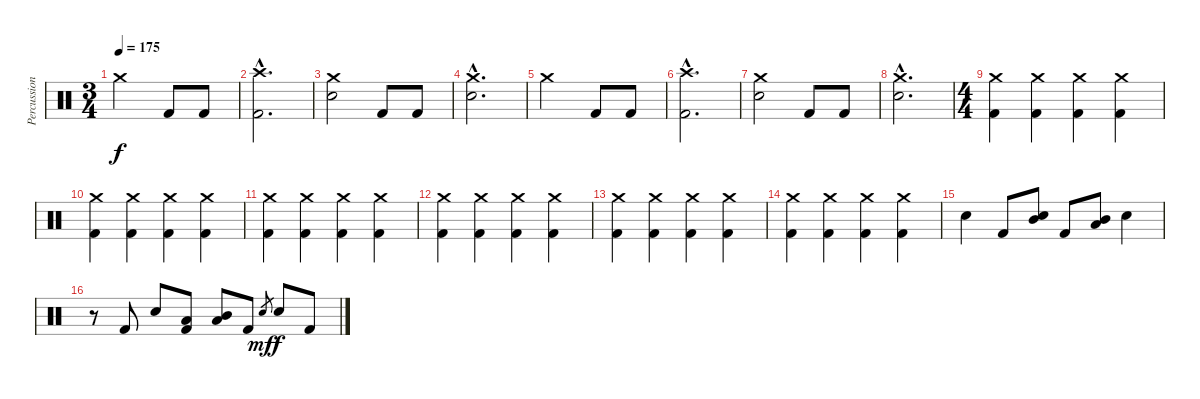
\track ("Percussion" "Percussion") {instrument percussion}
\staff {score}
\articulation defaults
\ts (3 4)
\tempo 175
\clef neutral
\ks c "Crash medium (hit)".2{dy f} "Kick (hit) 2".8 "Kick (hit) 2".8
|
("Kick (hit) 2"{hac} "Crash high (hit)"{hac}).2{d} |
("Crash medium (hit)" "Electric Snare (hit)").2 "Kick (hit) 2".8 "Kick (hit) 2".8 |
("Crash medium (hit)"{hac} "Electric Snare (hit)"{hac}).2{d} |
"Crash medium (hit)".2 "Kick (hit) 2".8 "Kick (hit) 2".8 |
("Kick (hit) 2"{hac} "Crash high (hit)"{hac}).2{d} |
("Crash medium (hit)" "Electric Snare (hit)").2 "Kick (hit) 2".8 "Kick (hit) 2".8 |
("Crash medium (hit)"{hac} "Electric Snare (hit)"{hac}).2{d} |
\ts (4 4)
("Kick (hit) 2" "Crash medium (hit)").4 ("Kick (hit) 2" "Crash medium (hit)").4 ("Kick (hit) 2" "Crash medium (hit)").4 ("Kick (hit) 2" "Crash medium (hit)").4 |
("Kick (hit) 2" "Crash medium (hit)").4 ("Kick (hit) 2" "Crash medium (hit)").4 ("Kick (hit) 2" "Crash medium (hit)").4 ("Kick (hit) 2" "Crash medium (hit)").4 |
("Kick (hit) 2" "Crash medium (hit)").4 ("Kick (hit) 2" "Crash medium (hit)").4 ("Kick (hit) 2" "Crash medium (hit)").4 ("Kick (hit) 2" "Crash medium (hit)").4 |
("Kick (hit) 2" "Crash medium (hit)").4 ("Kick (hit) 2" "Crash medium (hit)").4 ("Kick (hit) 2" "Crash medium (hit)").4 ("Kick (hit) 2" "Crash medium (hit)").4 |
("Kick (hit) 2" "Crash medium (hit)").4 ("Kick (hit) 2" "Crash medium (hit)").4 ("Kick (hit) 2" "Crash medium (hit)").4 ("Kick (hit) 2" "Crash medium (hit)").4 |
("Kick (hit) 2" "Crash medium (hit)").4 ("Kick (hit) 2" "Crash medium (hit)").4 ("Kick (hit) 2" "Crash medium (hit)").4 ("Kick (hit) 2" "Crash medium (hit)").4 |
"Electric Snare (hit)".4 "Kick (hit) 2".8 ("Electric Snare (hit)" "Mid Tom (hit)").8 "Kick (hit) 2".8 ("Mid Tom (hit)" "Low Tom (hit)").8 "Electric Snare (hit)".4 |
r.8 "Kick (hit) 2".8 "Electric Snare (hit)".8 ("Kick (hit) 2" "Low Tom (hit)").8 ("Mid Tom (hit)" "Low Tom (hit)").8 "Kick (hit) 2".8 "Electric Snare (hit)".8{gr dy mf} "Electric Snare (hit)".8{dy f} "Kick (hit) 2".8
